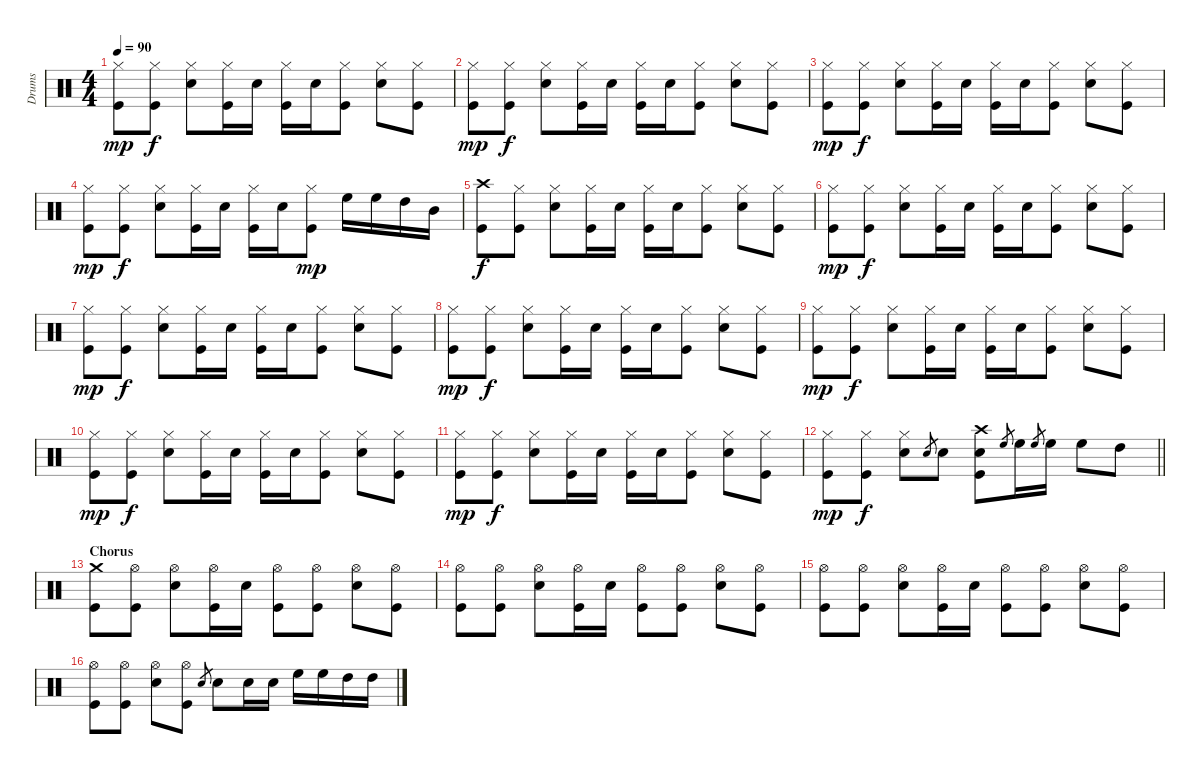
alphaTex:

\track ("Drums" "Drums") {instrument percussion}
\staff {score}
\articulation defaults
\ts (4 4)
\tempo 90
\clef neutral
\ks c
("Kick (hit)" "Hi-Hat (closed)").8{dy mp} ("Hi-Hat (closed)" "Kick (hit)").8{dy f} ("Snare (hit) 2" "Hi-Hat (closed)").8 ("Kick (hit)" "Hi-Hat (closed)").16 "Snare (hit) 2".16 ("Kick (hit)" "Hi-Hat (closed)").16 "Snare (hit) 2".16 ("Kick (hit)" "Hi-Hat (closed)").8 ("Snare (hit) 2" "Hi-Hat (closed)").8 ("Kick (hit)" "Hi-Hat (closed)").8 |
("Kick (hit)" "Hi-Hat (closed)").8{dy mp} ("Hi-Hat (closed)" "Kick (hit)").8{dy f} ("Snare (hit) 2" "Hi-Hat (closed)").8 ("Kick (hit)" "Hi-Hat (closed)").16 "Snare (hit) 2".16 ("Kick (hit)" "Hi-Hat (closed)").16 "Snare (hit) 2".16 ("Kick (hit)" "Hi-Hat (closed)").8 ("Snare (hit) 2" "Hi-Hat (closed)").8 ("Kick (hit)" "Hi-Hat (closed)").8 |
("Kick (hit)" "Hi-Hat (closed)").8{dy mp} ("Hi-Hat (closed)" "Kick (hit)").8{dy f} ("Snare (hit) 2" "Hi-Hat (closed)").8 ("Kick (hit)" "Hi-Hat (closed)").16 "Snare (hit) 2".16 ("Kick (hit)" "Hi-Hat (closed)").16 "Snare (hit) 2".16 ("Kick (hit)" "Hi-Hat (closed)").8 ("Snare (hit) 2" "Hi-Hat (closed)").8 ("Kick (hit)" "Hi-Hat (closed)").8 |
("Kick (hit)" "Hi-Hat (closed)").8{dy mp} ("Hi-Hat (closed)" "Kick (hit)").8{dy f} ("Snare (hit) 2" "Hi-Hat (closed)").8 ("Kick (hit)" "Hi-Hat (closed)").16 "Snare (hit) 2".16 ("Kick (hit)" "Hi-Hat (closed)").16 "Snare (hit) 2".16 ("Kick (hit)" "Hi-Hat (closed)").8{dy mp} "High Floor Tom (hit)".16 "High Floor Tom (hit)".16 "High Tom (hit)".16 "Mid Tom (hit)".16 |
("Kick (hit)" "Crash high (hit)").8{dy f} ("Hi-Hat (closed)" "Kick (hit)").8 ("Snare (hit) 2" "Hi-Hat (closed)").8 ("Kick (hit)" "Hi-Hat (closed)").16 "Snare (hit) 2".16 ("Kick (hit)" "Hi-Hat (closed)").16 "Snare (hit) 2".16 ("Kick (hit)" "Hi-Hat (closed)").8 ("Snare (hit) 2" "Hi-Hat (closed)").8 ("Kick (hit)" "Hi-Hat (closed)").8 |
("Kick (hit)" "Hi-Hat (closed)").8{dy mp} ("Hi-Hat (closed)" "Kick (hit)").8{dy f} ("Snare (hit) 2" "Hi-Hat (closed)").8 ("Kick (hit)" "Hi-Hat (closed)").16 "Snare (hit) 2".16 ("Kick (hit)" "Hi-Hat (closed)").16 "Snare (hit) 2".16 ("Kick (hit)" "Hi-Hat (closed)").8 ("Snare (hit) 2" "Hi-Hat (closed)").8 ("Kick (hit)" "Hi-Hat (closed)").8 |
("Kick (hit)" "Hi-Hat (closed)").8{dy mp} ("Hi-Hat (closed)" "Kick (hit)").8{dy f} ("Snare (hit) 2" "Hi-Hat (closed)").8 ("Kick (hit)" "Hi-Hat (closed)").16 "Snare (hit) 2".16 ("Kick (hit)" "Hi-Hat (closed)").16 "Snare (hit) 2".16 ("Kick (hit)" "Hi-Hat (closed)").8 ("Snare (hit) 2" "Hi-Hat (closed)").8 ("Kick (hit)" "Hi-Hat (closed)").8 |
("Kick (hit)" "Hi-Hat (closed)").8{dy mp} ("Hi-Hat (closed)" "Kick (hit)").8{dy f} ("Snare (hit) 2" "Hi-Hat (closed)").8 ("Kick (hit)" "Hi-Hat (closed)").16 "Snare (hit) 2".16 ("Kick (hit)" "Hi-Hat (closed)").16 "Snare (hit) 2".16 ("Kick (hit)" "Hi-Hat (closed)").8 ("Snare (hit) 2" "Hi-Hat (closed)").8 ("Kick (hit)" "Hi-Hat (closed)").8 |
("Kick (hit)" "Hi-Hat (closed)").8{dy mp} ("Hi-Hat (closed)" "Kick (hit)").8{dy f} ("Snare (hit) 2" "Hi-Hat (closed)").8 ("Kick (hit)" "Hi-Hat (closed)").16 "Snare (hit) 2".16 ("Kick (hit)" "Hi-Hat (closed)").16 "Snare (hit) 2".16 ("Kick (hit)" "Hi-Hat (closed)").8 ("Snare (hit) 2" "Hi-Hat (closed)").8 ("Kick (hit)" "Hi-Hat (closed)").8 |
("Kick (hit)" "Hi-Hat (closed)").8{dy mp} ("Hi-Hat (closed)" "Kick (hit)").8{dy f} ("Snare (hit) 2" "Hi-Hat (closed)").8 ("Kick (hit)" "Hi-Hat (closed)").16 "Snare (hit) 2".16 ("Kick (hit)" "Hi-Hat (closed)").16 "Snare (hit) 2".16 ("Kick (hit)" "Hi-Hat (closed)").8 ("Snare (hit) 2" "Hi-Hat (closed)").8 ("Kick (hit)" "Hi-Hat (closed)").8 |
("Kick (hit)" "Hi-Hat (closed)").8{dy mp} ("Hi-Hat (closed)" "Kick (hit)").8{dy f} ("Snare (hit) 2" "Hi-Hat (closed)").8 ("Kick (hit)" "Hi-Hat (closed)").16 "Snare (hit) 2".16 ("Kick (hit)" "Hi-Hat (closed)").16 "Snare (hit) 2".16 ("Kick (hit)" "Hi-Hat (closed)").8 ("Snare (hit) 2" "Hi-Hat (closed)").8 ("Kick (hit)" "Hi-Hat (closed)").8 |
\barLineRight lightlight
("Kick (hit)" "Hi-Hat (closed)").8{dy mp} ("Hi-Hat (closed)" "Kick (hit)").8{dy f} ("Snare (hit) 2" "Hi-Hat (closed)").8 "Snare (hit) 2".8{gr} "Snare (hit) 2".8 ("Snare (hit) 2" "Kick (hit)" "Crash high (hit)").8 "High Floor Tom (hit)".8{gr} "High Floor Tom (hit)".16 "High Floor Tom (hit)".8{gr} "High Floor Tom (hit)".16 "High Floor Tom (hit)".8 "High Tom (hit)".8 |
\section ("" "Chorus")
("Kick (hit)" "Crash medium (hit)").8 ("Kick (hit)" "Hi-Hat (open)").8 ("Snare (hit) 2" "Hi-Hat (open)").8 ("Hi-Hat (open)" "Kick (hit)").16 "Snare (hit) 2".16 ("Kick (hit)" "Hi-Hat (open)").8 ("Kick (hit)" "Hi-Hat (open)").8 ("Snare (hit) 2" "Hi-Hat (open)").8 ("Kick (hit)" "Hi-Hat (open)").8 |
("Kick (hit)" "Hi-Hat (open)").8 ("Kick (hit)" "Hi-Hat (open)").8 ("Snare (hit) 2" "Hi-Hat (open)").8 ("Hi-Hat (open)" "Kick (hit)").16 "Snare (hit) 2".16 ("Kick (hit)" "Hi-Hat (open)").8 ("Kick (hit)" "Hi-Hat (open)").8 ("Snare (hit) 2" "Hi-Hat (open)").8 ("Kick (hit)" "Hi-Hat (open)").8 |
("Kick (hit)" "Hi-Hat (open)").8 ("Kick (hit)" "Hi-Hat (open)").8 ("Snare (hit) 2" "Hi-Hat (open)").8 ("Hi-Hat (open)" "Kick (hit)").16 "Snare (hit) 2".16 ("Kick (hit)" "Hi-Hat (open)").8 ("Kick (hit)" "Hi-Hat (open)").8 ("Snare (hit) 2" "Hi-Hat (open)").8 ("Kick (hit)" "Hi-Hat (open)").8 |
("Kick (hit)" "Hi-Hat (open)").8 ("Kick (hit)" "Hi-Hat (open)").8 ("Snare (hit) 2" "Hi-Hat (open)").8 ("Kick (hit)" "Hi-Hat (open)").8 "Snare (hit) 2".8{gr} "Snare (hit) 2".8 "Snare (hit) 2".16 "Snare (hit) 2".16 "High Floor Tom (hit)".16 "High Floor Tom (hit)".16 "High Tom (hit)".16 "High Tom (hit)".16
